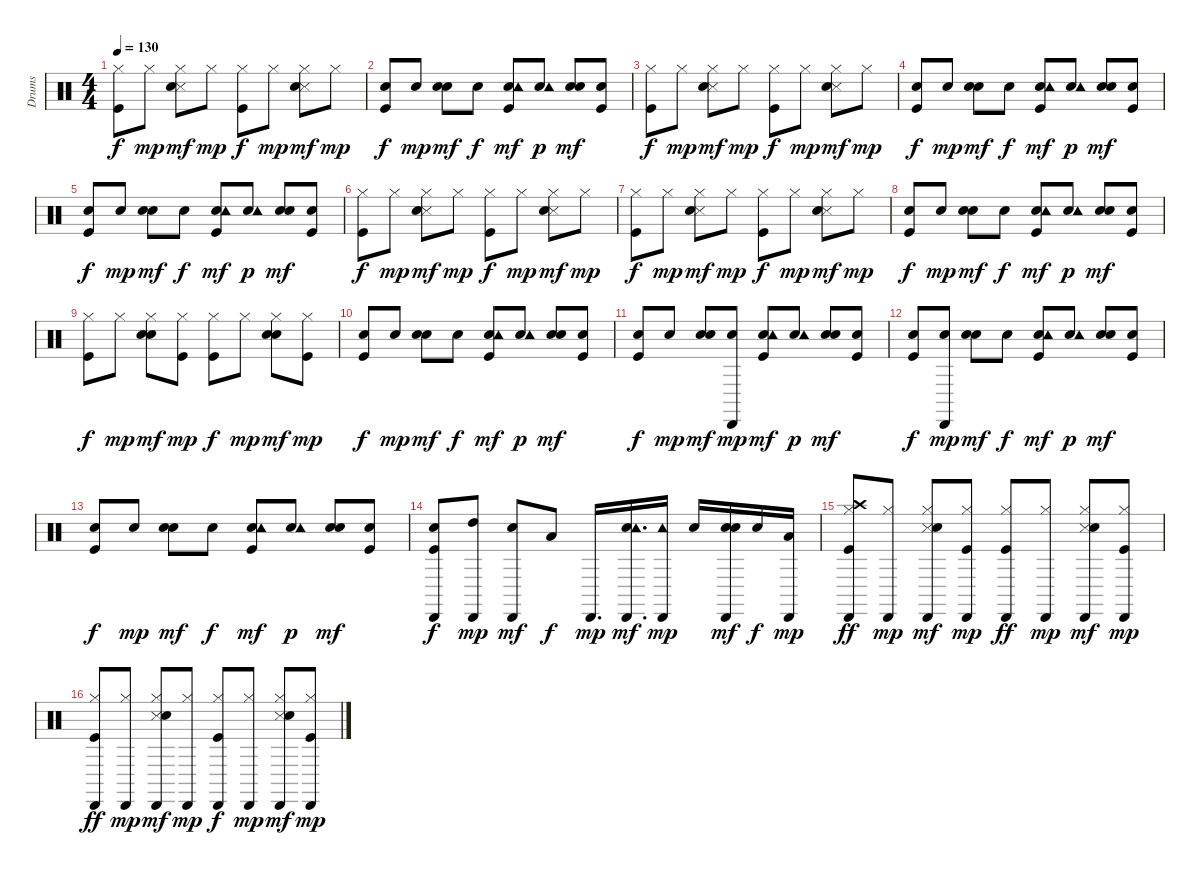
\track ("Drums" "Drums") {instrument percussion}
\staff {score}
\articulation defaults
\ts (4 4)
\tempo 130
\clef neutral
\ks c
("Kick (hit)" "Hi-Hat (closed)").8{dy f} "Hi-Hat (closed)".8{dy mp} ("Hi-Hat (closed)" "Snare (side stick) 3" "Hand Clap (hit)").8{dy mf} "Hi-Hat (closed)".8{dy mp} ("Kick (hit)" "Hi-Hat (closed)").8{dy f} "Hi-Hat (closed)".8{dy mp} ("Hi-Hat (closed)" "Snare (side stick) 3" "Hand Clap (hit)").8{dy mf} "Hi-Hat (closed)".8{dy mp} |
("Kick (hit)" "Snare (hit) 2").8{dy f} "Snare (hit) 2".8{dy mp} ("Snare (hit) 2" "Hand Clap (hit)").8{dy mf} "Snare (hit) 2".8{dy f} ("Kick (hit)" "Snare (hit) 2" "Tambourine (hit)").8{dy mf} ("Snare (hit) 2" "Tambourine (hit)").8{dy p} ("Snare (hit) 2" "Hand Clap (hit)").8{dy mf} ("Kick (hit)" "Snare (hit) 2").8 |
("Kick (hit)" "Hi-Hat (closed)").8{dy f} "Hi-Hat (closed)".8{dy mp} ("Hi-Hat (closed)" "Snare (side stick) 3" "Hand Clap (hit)").8{dy mf} "Hi-Hat (closed)".8{dy mp} ("Kick (hit)" "Hi-Hat (closed)").8{dy f} "Hi-Hat (closed)".8{dy mp} ("Hi-Hat (closed)" "Snare (side stick) 3" "Hand Clap (hit)").8{dy mf} "Hi-Hat (closed)".8{dy mp} |
("Kick (hit)" "Snare (hit) 2").8{dy f} "Snare (hit) 2".8{dy mp} ("Snare (hit) 2" "Hand Clap (hit)").8{dy mf} "Snare (hit) 2".8{dy f} ("Kick (hit)" "Snare (hit) 2" "Tambourine (hit)").8{dy mf} ("Snare (hit) 2" "Tambourine (hit)").8{dy p} ("Snare (hit) 2" "Hand Clap (hit)").8{dy mf} ("Kick (hit)" "Snare (hit) 2").8 |
("Kick (hit)" "Snare (hit) 2").8{dy f} "Snare (hit) 2".8{dy mp} ("Snare (hit) 2" "Hand Clap (hit)").8{dy mf} "Snare (hit) 2".8{dy f} ("Kick (hit)" "Snare (hit) 2" "Tambourine (hit)").8{dy mf} ("Snare (hit) 2" "Tambourine (hit)").8{dy p} ("Snare (hit) 2" "Hand Clap (hit)").8{dy mf} ("Kick (hit)" "Snare (hit) 2").8 |
("Kick (hit)" "Hi-Hat (closed)").8{dy f} "Hi-Hat (closed)".8{dy mp} ("Hi-Hat (closed)" "Snare (side stick) 3" "Hand Clap (hit)").8{dy mf} "Hi-Hat (closed)".8{dy mp} ("Kick (hit)" "Hi-Hat (closed)").8{dy f} "Hi-Hat (closed)".8{dy mp} ("Hi-Hat (closed)" "Snare (side stick) 3" "Hand Clap (hit)").8{dy mf} "Hi-Hat (closed)".8{dy mp} |
("Kick (hit)" "Hi-Hat (closed)").8{dy f} "Hi-Hat (closed)".8{dy mp} ("Hi-Hat (closed)" "Snare (side stick) 3" "Hand Clap (hit)").8{dy mf} "Hi-Hat (closed)".8{dy mp} ("Kick (hit)" "Hi-Hat (closed)").8{dy f} "Hi-Hat (closed)".8{dy mp} ("Hi-Hat (closed)" "Snare (side stick) 3" "Hand Clap (hit)").8{dy mf} "Hi-Hat (closed)".8{dy mp} |
("Kick (hit)" "Snare (hit) 2").8{dy f} "Snare (hit) 2".8{dy mp} ("Snare (hit) 2" "Hand Clap (hit)").8{dy mf} "Snare (hit) 2".8{dy f} ("Kick (hit)" "Snare (hit) 2" "Tambourine (hit)").8{dy mf} ("Snare (hit) 2" "Tambourine (hit)").8{dy p} ("Snare (hit) 2" "Hand Clap (hit)").8{dy mf} ("Kick (hit)" "Snare (hit) 2").8 |
("Kick (hit)" "Hi-Hat (closed)").8{dy f} "Hi-Hat (closed)".8{dy mp} ("Snare (hit) 2" "Hi-Hat (closed)" "Hand Clap (hit)").8{dy mf} ("Kick (hit)" "Hi-Hat (closed)").8{dy mp} ("Kick (hit)" "Hi-Hat (closed)").8{dy f} "Hi-Hat (closed)".8{dy mp} ("Snare (hit) 2" "Hi-Hat (closed)" "Hand Clap (hit)").8{dy mf} ("Kick (hit)" "Hi-Hat (closed)").8{dy mp} |
("Kick (hit)" "Snare (hit) 2").8{dy f} "Snare (hit) 2".8{dy mp} ("Snare (hit) 2" "Hand Clap (hit)").8{dy mf} "Snare (hit) 2".8{dy f} ("Kick (hit)" "Snare (hit) 2" "Tambourine (hit)").8{dy mf} ("Snare (hit) 2" "Tambourine (hit)").8{dy p} ("Snare (hit) 2" "Hand Clap (hit)").8{dy mf} ("Kick (hit)" "Snare (hit) 2").8 |
("Kick (hit)" "Snare (hit) 2").8{dy f} "Snare (hit) 2".8{dy mp} ("Snare (hit) 2" "Hand Clap (hit)").8{dy mf} ("Snare (hit) 2" "Cabasa (hit)").8{dy mp} ("Kick (hit)" "Snare (hit) 2" "Tambourine (hit)").8{dy mf} ("Snare (hit) 2" "Tambourine (hit)").8{dy p} ("Snare (hit) 2" "Hand Clap (hit)").8{dy mf} ("Kick (hit)" "Snare (hit) 2").8 |
("Kick (hit)" "Snare (hit) 2").8{dy f} ("Snare (hit) 2" "Cabasa (hit)").8{dy mp} ("Snare (hit) 2" "Hand Clap (hit)").8{dy mf} "Snare (hit) 2".8{dy f} ("Kick (hit)" "Snare (hit) 2" "Tambourine (hit)").8{dy mf} ("Snare (hit) 2" "Tambourine (hit)").8{dy p} ("Snare (hit) 2" "Hand Clap (hit)").8{dy mf} ("Kick (hit)" "Snare (hit) 2").8 |
("Kick (hit)" "Snare (hit) 2").8{dy f} "Snare (hit) 2".8{dy mp} ("Snare (hit) 2" "Hand Clap (hit)").8{dy mf} "Snare (hit) 2".8{dy f} ("Kick (hit)" "Snare (hit) 2" "Tambourine (hit)").8{dy mf} ("Snare (hit) 2" "Tambourine (hit)").8{dy p} ("Snare (hit) 2" "Hand Clap (hit)").8{dy mf} ("Kick (hit)" "Snare (hit) 2").8 |
("Kick (hit)" "Snare (hit) 2" "Cabasa (hit)").8{dy f} ("High Tom (hit)" "Cabasa (hit)").8{dy mp} ("Hand Clap (hit)" "Cabasa (hit)").8{dy mf} "Low Tom (hit)".8{dy f} "Cabasa (hit)".16{d dy mp} ("Snare (hit) 2" "Tambourine (hit)" "Cabasa (hit)").16{d dy mf} ("Tambourine (hit)" "Cabasa (hit)").16{dy mp} "Snare (hit) 2".16 ("Snare (hit) 2" "Hand Clap (hit)" "Cabasa (hit)").16{dy mf} "Snare (hit) 2".16{dy f} ("Low Floor Tom (hit)" "Cabasa (hit)").16{dy mp} |
("Kick (hit)" "Hi-Hat (closed)" "Crash high (hit)" "Cabasa (hit)").8{dy ff} ("Hi-Hat (closed)" "Cabasa (hit)").8{dy mp} ("Hi-Hat (closed)" "Snare (side stick) 3" "Hand Clap (hit)" "Cabasa (hit)").8{dy mf} ("Kick (hit)" "Hi-Hat (closed)" "Cabasa (hit)").8{dy mp} ("Kick (hit)" "Hi-Hat (closed)" "Cabasa (hit)").8{dy ff} ("Hi-Hat (closed)" "Cabasa (hit)").8{dy mp} ("Hi-Hat (closed)" "Snare (side stick) 3" "Hand Clap (hit)" "Cabasa (hit)").8{dy mf} ("Kick (hit)" "Hi-Hat (closed)" "Cabasa (hit)").8{dy mp} |
("Kick (hit)" "Hi-Hat (closed)" "Cabasa (hit)").8{dy ff} ("Hi-Hat (closed)" "Cabasa (hit)").8{dy mp} ("Hi-Hat (closed)" "Snare (side stick) 3" "Hand Clap (hit)" "Cabasa (hit)").8{dy mf} ("Hi-Hat (closed)" "Cabasa (hit)").8{dy mp} ("Kick (hit)" "Hi-Hat (closed)" "Cabasa (hit)").8{dy f} ("Hi-Hat (closed)" "Cabasa (hit)").8{dy mp} ("Hi-Hat (closed)" "Snare (side stick) 3" "Hand Clap (hit)" "Cabasa (hit)").8{dy mf} ("Kick (hit)" "Hi-Hat (closed)" "Cabasa (hit)").8{dy mp}
